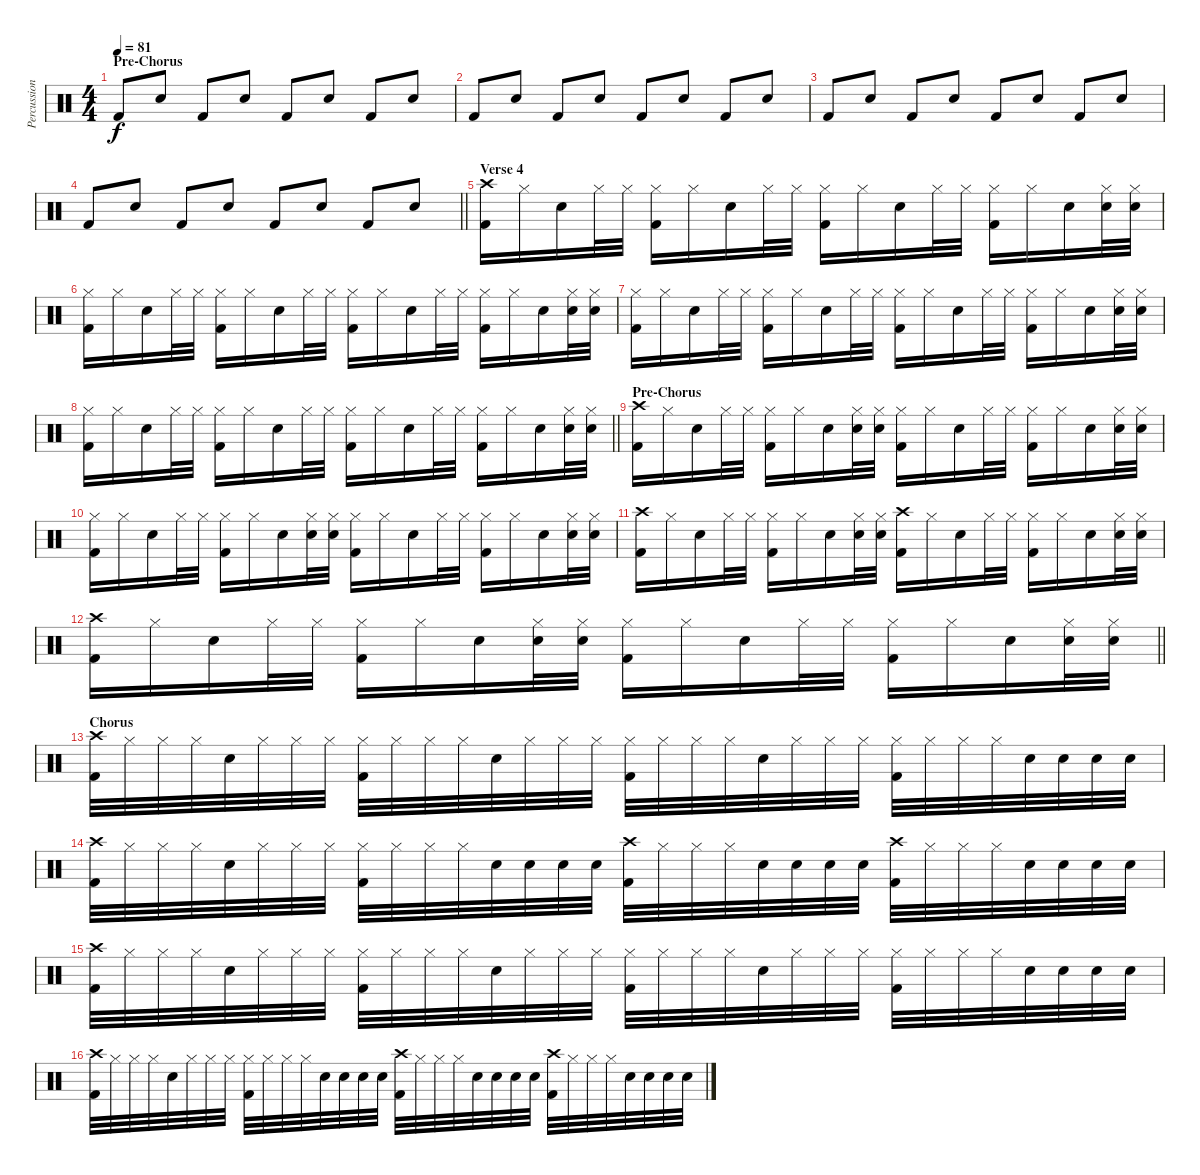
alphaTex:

\track ("Percussion" "Percussion") {instrument percussion}
\staff {score}
\articulation defaults
\ts (4 4)
\section ("" "Pre-Chorus")
\tempo 81
\clef neutral
\ks c "Kick (hit) 2".8{dy f} "Snare (hit) 2".8 "Kick (hit) 2".8 "Snare (hit) 2".8 "Kick (hit) 2".8 "Snare (hit) 2".8 "Kick (hit) 2".8 "Snare (hit) 2".8
|
"Kick (hit) 2".8 "Snare (hit) 2".8 "Kick (hit) 2".8 "Snare (hit) 2".8 "Kick (hit) 2".8 "Snare (hit) 2".8 "Kick (hit) 2".8 "Snare (hit) 2".8 |
"Kick (hit) 2".8 "Snare (hit) 2".8 "Kick (hit) 2".8 "Snare (hit) 2".8 "Kick (hit) 2".8 "Snare (hit) 2".8 "Kick (hit) 2".8 "Snare (hit) 2".8 |
\barLineRight lightlight "Kick (hit) 2".8 "Snare (hit) 2".8 "Kick (hit) 2".8 "Snare (hit) 2".8 "Kick (hit) 2".8 "Snare (hit) 2".8 "Kick (hit) 2".8 "Snare (hit) 2".8
|
\section ("" "Verse 4")
("Crash high (hit)" "Kick (hit) 2").16 "Hi-Hat (closed)".16 "Snare (hit) 2".16 "Hi-Hat (closed)".32 "Hi-Hat (closed)".32 ("Hi-Hat (closed)" "Kick (hit) 2").16 "Hi-Hat (closed)".16 "Snare (hit) 2".16 "Hi-Hat (closed)".32 "Hi-Hat (closed)".32 ("Hi-Hat (closed)" "Kick (hit) 2").16 "Hi-Hat (closed)".16 "Snare (hit) 2".16 "Hi-Hat (closed)".32 "Hi-Hat (closed)".32 ("Hi-Hat (closed)" "Kick (hit) 2").16 "Hi-Hat (closed)".16 "Snare (hit) 2".16 ("Hi-Hat (closed)" "Snare (hit) 2").32 ("Hi-Hat (closed)" "Snare (hit) 2").32 |
("Hi-Hat (closed)" "Kick (hit) 2").16 "Hi-Hat (closed)".16 "Snare (hit) 2".16 "Hi-Hat (closed)".32 "Hi-Hat (closed)".32 ("Hi-Hat (closed)" "Kick (hit) 2").16 "Hi-Hat (closed)".16 "Snare (hit) 2".16 "Hi-Hat (closed)".32 "Hi-Hat (closed)".32 ("Hi-Hat (closed)" "Kick (hit) 2").16 "Hi-Hat (closed)".16 "Snare (hit) 2".16 "Hi-Hat (closed)".32 "Hi-Hat (closed)".32 ("Hi-Hat (closed)" "Kick (hit) 2").16 "Hi-Hat (closed)".16 "Snare (hit) 2".16 ("Hi-Hat (closed)" "Snare (hit) 2").32 ("Hi-Hat (closed)" "Snare (hit) 2").32 |
("Hi-Hat (closed)" "Kick (hit) 2").16 "Hi-Hat (closed)".16 "Snare (hit) 2".16 "Hi-Hat (closed)".32 "Hi-Hat (closed)".32 ("Hi-Hat (closed)" "Kick (hit) 2").16 "Hi-Hat (closed)".16 "Snare (hit) 2".16 "Hi-Hat (closed)".32 "Hi-Hat (closed)".32 ("Hi-Hat (closed)" "Kick (hit) 2").16 "Hi-Hat (closed)".16 "Snare (hit) 2".16 "Hi-Hat (closed)".32 "Hi-Hat (closed)".32 ("Hi-Hat (closed)" "Kick (hit) 2").16 "Hi-Hat (closed)".16 "Snare (hit) 2".16 ("Hi-Hat (closed)" "Snare (hit) 2").32 ("Hi-Hat (closed)" "Snare (hit) 2").32 |
\barLineRight lightlight
("Hi-Hat (closed)" "Kick (hit) 2").16 "Hi-Hat (closed)".16 "Snare (hit) 2".16 "Hi-Hat (closed)".32 "Hi-Hat (closed)".32 ("Hi-Hat (closed)" "Kick (hit) 2").16 "Hi-Hat (closed)".16 "Snare (hit) 2".16 "Hi-Hat (closed)".32 "Hi-Hat (closed)".32 ("Hi-Hat (closed)" "Kick (hit) 2").16 "Hi-Hat (closed)".16 "Snare (hit) 2".16 "Hi-Hat (closed)".32 "Hi-Hat (closed)".32 ("Hi-Hat (closed)" "Kick (hit) 2").16 "Hi-Hat (closed)".16 "Snare (hit) 2".16 ("Hi-Hat (closed)" "Snare (hit) 2").32 ("Hi-Hat (closed)" "Snare (hit) 2").32 |
\section ("" "Pre-Chorus")
("Crash high (hit)" "Kick (hit) 2").16 "Hi-Hat (closed)".16 "Snare (hit) 2".16 "Hi-Hat (closed)".32 "Hi-Hat (closed)".32 ("Hi-Hat (closed)" "Kick (hit) 2").16 "Hi-Hat (closed)".16 "Snare (hit) 2".16 ("Hi-Hat (closed)" "Snare (hit) 2").32 ("Hi-Hat (closed)" "Snare (hit) 2").32 ("Hi-Hat (closed)" "Kick (hit) 2").16 "Hi-Hat (closed)".16 "Snare (hit) 2".16 "Hi-Hat (closed)".32 "Hi-Hat (closed)".32 ("Hi-Hat (closed)" "Kick (hit) 2").16 "Hi-Hat (closed)".16 "Snare (hit) 2".16 ("Hi-Hat (closed)" "Snare (hit) 2").32 ("Hi-Hat (closed)" "Snare (hit) 2").32 |
("Hi-Hat (closed)" "Kick (hit) 2").16 "Hi-Hat (closed)".16 "Snare (hit) 2".16 "Hi-Hat (closed)".32 "Hi-Hat (closed)".32 ("Hi-Hat (closed)" "Kick (hit) 2").16 "Hi-Hat (closed)".16 "Snare (hit) 2".16 ("Hi-Hat (closed)" "Snare (hit) 2").32 ("Hi-Hat (closed)" "Snare (hit) 2").32 ("Hi-Hat (closed)" "Kick (hit) 2").16 "Hi-Hat (closed)".16 "Snare (hit) 2".16 "Hi-Hat (closed)".32 "Hi-Hat (closed)".32 ("Hi-Hat (closed)" "Kick (hit) 2").16 "Hi-Hat (closed)".16 "Snare (hit) 2".16 ("Hi-Hat (closed)" "Snare (hit) 2").32 ("Hi-Hat (closed)" "Snare (hit) 2").32 |
("Crash high (hit)" "Kick (hit) 2").16 "Hi-Hat (closed)".16 "Snare (hit) 2".16 "Hi-Hat (closed)".32 "Hi-Hat (closed)".32 ("Hi-Hat (closed)" "Kick (hit) 2").16 "Hi-Hat (closed)".16 "Snare (hit) 2".16 ("Hi-Hat (closed)" "Snare (hit) 2").32 ("Hi-Hat (closed)" "Snare (hit) 2").32 ("Crash high (hit)" "Kick (hit) 2").16 "Hi-Hat (closed)".16 "Snare (hit) 2".16 "Hi-Hat (closed)".32 "Hi-Hat (closed)".32 ("Hi-Hat (closed)" "Kick (hit) 2").16 "Hi-Hat (closed)".16 "Snare (hit) 2".16 ("Hi-Hat (closed)" "Snare (hit) 2").32 ("Hi-Hat (closed)" "Snare (hit) 2").32 |
\barLineRight lightlight
("Crash high (hit)" "Kick (hit) 2").16 "Hi-Hat (closed)".16 "Snare (hit) 2".16 "Hi-Hat (closed)".32 "Hi-Hat (closed)".32 ("Hi-Hat (closed)" "Kick (hit) 2").16 "Hi-Hat (closed)".16 "Snare (hit) 2".16 ("Hi-Hat (closed)" "Snare (hit) 2").32 ("Hi-Hat (closed)" "Snare (hit) 2").32 ("Hi-Hat (closed)" "Kick (hit) 2").16 "Hi-Hat (closed)".16 "Snare (hit) 2".16 "Hi-Hat (closed)".32 "Hi-Hat (closed)".32 ("Hi-Hat (closed)" "Kick (hit) 2").16 "Hi-Hat (closed)".16 "Snare (hit) 2".16 ("Hi-Hat (closed)" "Snare (hit) 2").32 ("Hi-Hat (closed)" "Snare (hit) 2").32 |
\section ("" "Chorus")
("Crash high (hit)" "Kick (hit) 2").32 "Hi-Hat (closed)".32 "Hi-Hat (closed)".32 "Hi-Hat (closed)".32 "Snare (hit) 2".32 "Hi-Hat (closed)".32 "Hi-Hat (closed)".32 "Hi-Hat (closed)".32 ("Hi-Hat (closed)" "Kick (hit) 2").32 "Hi-Hat (closed)".32 "Hi-Hat (closed)".32 "Hi-Hat (closed)".32 "Snare (hit) 2".32 "Hi-Hat (closed)".32 "Hi-Hat (closed)".32 "Hi-Hat (closed)".32 ("Hi-Hat (closed)" "Kick (hit) 2").32 "Hi-Hat (closed)".32 "Hi-Hat (closed)".32 "Hi-Hat (closed)".32 "Snare (hit) 2".32 "Hi-Hat (closed)".32 "Hi-Hat (closed)".32 "Hi-Hat (closed)".32 ("Hi-Hat (closed)" "Kick (hit) 2").32 "Hi-Hat (closed)".32 "Hi-Hat (closed)".32 "Hi-Hat (closed)".32 "Snare (hit) 2".32 "Snare (hit) 2".32 "Snare (hit) 2".32 "Snare (hit) 2".32 |
("Crash high (hit)" "Kick (hit) 2").32 "Hi-Hat (closed)".32 "Hi-Hat (closed)".32 "Hi-Hat (closed)".32 "Snare (hit) 2".32 "Hi-Hat (closed)".32 "Hi-Hat (closed)".32 "Hi-Hat (closed)".32 ("Hi-Hat (closed)" "Kick (hit) 2").32 "Hi-Hat (closed)".32 "Hi-Hat (closed)".32 "Hi-Hat (closed)".32 "Snare (hit) 2".32 "Snare (hit) 2".32 "Snare (hit) 2".32 "Snare (hit) 2".32 ("Crash high (hit)" "Kick (hit) 2").32 "Hi-Hat (closed)".32 "Hi-Hat (closed)".32 "Hi-Hat (closed)".32 "Snare (hit) 2".32 "Snare (hit) 2".32 "Snare (hit) 2".32 "Snare (hit) 2".32 ("Crash high (hit)" "Kick (hit) 2").32 "Hi-Hat (closed)".32 "Hi-Hat (closed)".32 "Hi-Hat (closed)".32 "Snare (hit) 2".32 "Snare (hit) 2".32 "Snare (hit) 2".32 "Snare (hit) 2".32 |
("Crash high (hit)" "Kick (hit) 2").32 "Hi-Hat (closed)".32 "Hi-Hat (closed)".32 "Hi-Hat (closed)".32 "Snare (hit) 2".32 "Hi-Hat (closed)".32 "Hi-Hat (closed)".32 "Hi-Hat (closed)".32 ("Hi-Hat (closed)" "Kick (hit) 2").32 "Hi-Hat (closed)".32 "Hi-Hat (closed)".32 "Hi-Hat (closed)".32 "Snare (hit) 2".32 "Hi-Hat (closed)".32 "Hi-Hat (closed)".32 "Hi-Hat (closed)".32 ("Hi-Hat (closed)" "Kick (hit) 2").32 "Hi-Hat (closed)".32 "Hi-Hat (closed)".32 "Hi-Hat (closed)".32 "Snare (hit) 2".32 "Hi-Hat (closed)".32 "Hi-Hat (closed)".32 "Hi-Hat (closed)".32 ("Hi-Hat (closed)" "Kick (hit) 2").32 "Hi-Hat (closed)".32 "Hi-Hat (closed)".32 "Hi-Hat (closed)".32 "Snare (hit) 2".32 "Snare (hit) 2".32 "Snare (hit) 2".32 "Snare (hit) 2".32 |
("Crash high (hit)" "Kick (hit) 2").32 "Hi-Hat (closed)".32 "Hi-Hat (closed)".32 "Hi-Hat (closed)".32 "Snare (hit) 2".32 "Hi-Hat (closed)".32 "Hi-Hat (closed)".32 "Hi-Hat (closed)".32 ("Hi-Hat (closed)" "Kick (hit) 2").32 "Hi-Hat (closed)".32 "Hi-Hat (closed)".32 "Hi-Hat (closed)".32 "Snare (hit) 2".32 "Snare (hit) 2".32 "Snare (hit) 2".32 "Snare (hit) 2".32 ("Crash high (hit)" "Kick (hit) 2").32 "Hi-Hat (closed)".32 "Hi-Hat (closed)".32 "Hi-Hat (closed)".32 "Snare (hit) 2".32 "Snare (hit) 2".32 "Snare (hit) 2".32 "Snare (hit) 2".32 ("Crash high (hit)" "Kick (hit) 2").32 "Hi-Hat (closed)".32 "Hi-Hat (closed)".32 "Hi-Hat (closed)".32 "Snare (hit) 2".32 "Snare (hit) 2".32 "Snare (hit) 2".32 "Snare (hit) 2".32
